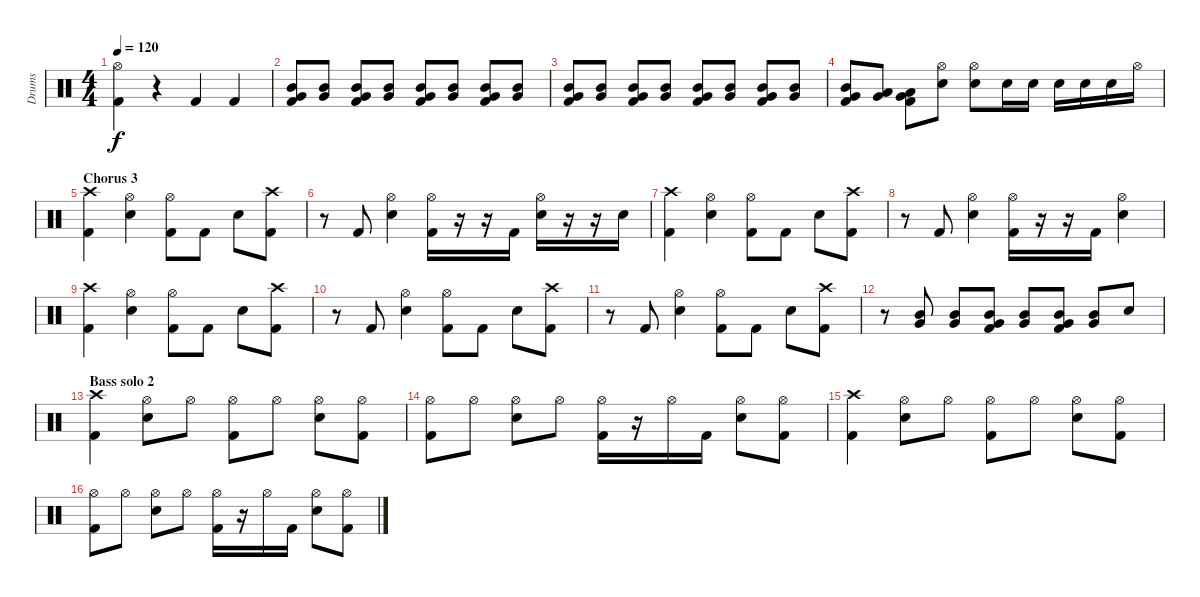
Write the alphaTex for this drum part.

\track ("Drums" "Drums") {instrument percussion}
\staff {score}
\articulation defaults
\ts (4 4)
\tempo 120
\clef neutral
\ks c
("Hi-Hat (open)" "Kick (hit) 2").4{dy f} r.4 "Kick (hit) 2".4 "Kick (hit) 2".4 |
("Mid Tom (hit)" "Very Low Tom (hit)" "Kick (hit) 2").8 ("Mid Tom (hit)" "Very Low Tom (hit)").8 ("Mid Tom (hit)" "Very Low Tom (hit)" "Kick (hit) 2").8 ("Mid Tom (hit)" "Very Low Tom (hit)").8 ("Mid Tom (hit)" "Very Low Tom (hit)" "Kick (hit) 2").8 ("Mid Tom (hit)" "Very Low Tom (hit)").8 ("Mid Tom (hit)" "Very Low Tom (hit)" "Kick (hit) 2").8 ("Mid Tom (hit)" "Very Low Tom (hit)").8 |
("Mid Tom (hit)" "Very Low Tom (hit)" "Kick (hit) 2").8 ("Mid Tom (hit)" "Very Low Tom (hit)").8 ("Mid Tom (hit)" "Very Low Tom (hit)" "Kick (hit) 2").8 ("Mid Tom (hit)" "Very Low Tom (hit)").8 ("Mid Tom (hit)" "Very Low Tom (hit)" "Kick (hit) 2").8 ("Mid Tom (hit)" "Very Low Tom (hit)").8 ("Mid Tom (hit)" "Very Low Tom (hit)" "Kick (hit) 2").8 ("Mid Tom (hit)" "Very Low Tom (hit)").8 |
("Mid Tom (hit)" "Very Low Tom (hit)" "Kick (hit) 2").8 ("Low Tom (hit)" "Very Low Tom (hit)").8 ("Low Tom (hit)" "Very Low Tom (hit)" "Kick (hit) 2").8 ("Hi-Hat (open)" "Electric Snare (hit)").8 ("Hi-Hat (open)" "Electric Snare (hit)").8 "Electric Snare (hit)".16 "Electric Snare (hit)".16 "Electric Snare (hit)".16 "Electric Snare (hit)".16 "Electric Snare (hit)".16 "Hi-Hat (open)".16 |
\section ("" "Chorus 3")
("Crash high (hit)" "Kick (hit) 2").4 ("Hi-Hat (open)" "Electric Snare (hit)").4 ("Hi-Hat (open)" "Kick (hit) 2").8 "Kick (hit) 2".8 "Electric Snare (hit)".8 ("Crash high (hit)" "Kick (hit) 2").8 |
r.8 "Kick (hit) 2".8 ("Hi-Hat (open)" "Electric Snare (hit)").4 ("Hi-Hat (open)" "Kick (hit) 2").16 r.16 r.16 "Kick (hit) 2".16 ("Hi-Hat (open)" "Electric Snare (hit)").16 r.16 r.16 "Electric Snare (hit)".16 |
("Crash high (hit)" "Kick (hit) 2").4 ("Hi-Hat (open)" "Electric Snare (hit)").4 ("Hi-Hat (open)" "Kick (hit) 2").8 "Kick (hit) 2".8 "Electric Snare (hit)".8 ("Crash high (hit)" "Kick (hit) 2").8 |
r.8 "Kick (hit) 2".8 ("Hi-Hat (open)" "Electric Snare (hit)").4 ("Hi-Hat (open)" "Kick (hit) 2").16 r.16 r.16 "Kick (hit) 2".16 ("Hi-Hat (open)" "Electric Snare (hit)").4 |
("Crash high (hit)" "Kick (hit) 2").4 ("Hi-Hat (open)" "Electric Snare (hit)").4 ("Hi-Hat (open)" "Kick (hit) 2").8 "Kick (hit) 2".8 "Electric Snare (hit)".8 ("Crash high (hit)" "Kick (hit) 2").8 |
r.8 "Kick (hit) 2".8 ("Hi-Hat (open)" "Electric Snare (hit)").4 ("Hi-Hat (open)" "Kick (hit) 2").8 "Kick (hit) 2".8 "Electric Snare (hit)".8 ("Crash high (hit)" "Kick (hit) 2").8 |
r.8 "Kick (hit) 2".8 ("Hi-Hat (open)" "Electric Snare (hit)").4 ("Hi-Hat (open)" "Kick (hit) 2").8 "Kick (hit) 2".8 "Electric Snare (hit)".8 ("Crash high (hit)" "Kick (hit) 2").8 |
r.8 ("Mid Tom (hit)" "Very Low Tom (hit)").8 ("Mid Tom (hit)" "Very Low Tom (hit)").8 ("Mid Tom (hit)" "Very Low Tom (hit)" "Kick (hit) 2").8 ("Mid Tom (hit)" "Very Low Tom (hit)").8 ("Mid Tom (hit)" "Very Low Tom (hit)" "Kick (hit) 2").8 ("Mid Tom (hit)" "Very Low Tom (hit)").8 "Electric Snare (hit)".8 |
\section ("" "Bass solo 2")
("Crash high (hit)" "Kick (hit) 2").4 ("Hi-Hat (open)" "Electric Snare (hit)").8 "Hi-Hat (open)".8 ("Hi-Hat (open)" "Kick (hit) 2").8 "Hi-Hat (open)".8 ("Hi-Hat (open)" "Electric Snare (hit)").8 ("Hi-Hat (open)" "Kick (hit) 2").8 |
("Hi-Hat (open)" "Kick (hit) 2").8 "Hi-Hat (open)".8 ("Hi-Hat (open)" "Electric Snare (hit)").8 "Hi-Hat (open)".8 ("Hi-Hat (open)" "Kick (hit) 2").16 r.16 "Hi-Hat (open)".16 "Kick (hit) 2".16 ("Hi-Hat (open)" "Electric Snare (hit)").8 ("Hi-Hat (open)" "Kick (hit) 2").8 |
("Crash high (hit)" "Kick (hit) 2").4 ("Hi-Hat (open)" "Electric Snare (hit)").8 "Hi-Hat (open)".8 ("Hi-Hat (open)" "Kick (hit) 2").8 "Hi-Hat (open)".8 ("Hi-Hat (open)" "Electric Snare (hit)").8 ("Hi-Hat (open)" "Kick (hit) 2").8 |
("Hi-Hat (open)" "Kick (hit) 2").8 "Hi-Hat (open)".8 ("Hi-Hat (open)" "Electric Snare (hit)").8 "Hi-Hat (open)".8 ("Hi-Hat (open)" "Kick (hit) 2").16 r.16 "Hi-Hat (open)".16 "Kick (hit) 2".16 ("Hi-Hat (open)" "Electric Snare (hit)").8 ("Hi-Hat (open)" "Kick (hit) 2").8
